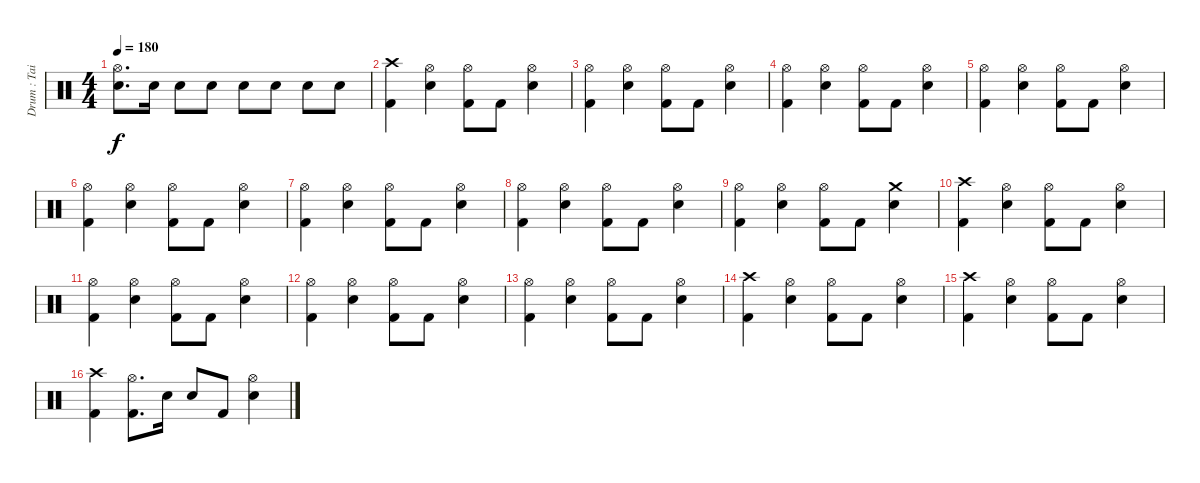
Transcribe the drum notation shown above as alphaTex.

\track ("Drum : Tainaka Ritsu" "Drum : Tai") {instrument percussion}
\staff {score}
\articulation defaults
\ts (4 4)
\tempo 180
\clef neutral
\ks c
("Hi-Hat (open)" "Snare (hit) 2").8{d dy f} "Snare (hit) 2".16 "Snare (hit) 2".8 "Snare (hit) 2".8 "Snare (hit) 2".8 "Snare (hit) 2".8 "Snare (hit) 2".8 "Snare (hit) 2".8 |
("Crash high (hit)" "Kick (hit) 2").4 ("Hi-Hat (open)" "Snare (hit) 2").4 ("Hi-Hat (open)" "Kick (hit) 2").8 "Kick (hit) 2".8 ("Hi-Hat (open)" "Snare (hit) 2").4 |
("Hi-Hat (open)" "Kick (hit) 2").4 ("Hi-Hat (open)" "Snare (hit) 2").4 ("Hi-Hat (open)" "Kick (hit) 2").8 "Kick (hit) 2".8 ("Hi-Hat (open)" "Snare (hit) 2").4 |
("Hi-Hat (open)" "Kick (hit) 2").4 ("Hi-Hat (open)" "Snare (hit) 2").4 ("Hi-Hat (open)" "Kick (hit) 2").8 "Kick (hit) 2".8 ("Hi-Hat (open)" "Snare (hit) 2").4 |
("Hi-Hat (open)" "Kick (hit) 2").4 ("Hi-Hat (open)" "Snare (hit) 2").4 ("Hi-Hat (open)" "Kick (hit) 2").8 "Kick (hit) 2".8 ("Hi-Hat (open)" "Snare (hit) 2").4 |
("Hi-Hat (open)" "Kick (hit) 2").4 ("Hi-Hat (open)" "Snare (hit) 2").4 ("Hi-Hat (open)" "Kick (hit) 2").8 "Kick (hit) 2".8 ("Hi-Hat (open)" "Snare (hit) 2").4 |
("Hi-Hat (open)" "Kick (hit) 2").4 ("Hi-Hat (open)" "Snare (hit) 2").4 ("Hi-Hat (open)" "Kick (hit) 2").8 "Kick (hit) 2".8 ("Hi-Hat (open)" "Snare (hit) 2").4 |
("Hi-Hat (open)" "Kick (hit) 2").4 ("Hi-Hat (open)" "Snare (hit) 2").4 ("Hi-Hat (open)" "Kick (hit) 2").8 "Kick (hit) 2".8 ("Hi-Hat (open)" "Snare (hit) 2").4 |
("Hi-Hat (open)" "Kick (hit) 2").4 ("Hi-Hat (open)" "Snare (hit) 2").4 ("Hi-Hat (open)" "Kick (hit) 2").8 "Kick (hit) 2".8 ("Crash medium (hit)" "Snare (hit) 2").4 |
("Crash high (hit)" "Kick (hit) 2").4 ("Hi-Hat (open)" "Snare (hit) 2").4 ("Hi-Hat (open)" "Kick (hit) 2").8 "Kick (hit) 2".8 ("Hi-Hat (open)" "Snare (hit) 2").4 |
("Hi-Hat (open)" "Kick (hit) 2").4 ("Hi-Hat (open)" "Snare (hit) 2").4 ("Hi-Hat (open)" "Kick (hit) 2").8 "Kick (hit) 2".8 ("Hi-Hat (open)" "Snare (hit) 2").4 |
("Hi-Hat (open)" "Kick (hit) 2").4 ("Hi-Hat (open)" "Snare (hit) 2").4 ("Hi-Hat (open)" "Kick (hit) 2").8 "Kick (hit) 2".8 ("Hi-Hat (open)" "Snare (hit) 2").4 |
("Hi-Hat (open)" "Kick (hit) 2").4 ("Hi-Hat (open)" "Snare (hit) 2").4 ("Hi-Hat (open)" "Kick (hit) 2").8 "Kick (hit) 2".8 ("Hi-Hat (open)" "Snare (hit) 2").4 |
("Crash high (hit)" "Kick (hit) 2").4 ("Hi-Hat (open)" "Snare (hit) 2").4 ("Hi-Hat (open)" "Kick (hit) 2").8 "Kick (hit) 2".8 ("Hi-Hat (open)" "Snare (hit) 2").4 |
("Crash high (hit)" "Kick (hit) 2").4 ("Hi-Hat (open)" "Snare (hit) 2").4 ("Hi-Hat (open)" "Kick (hit) 2").8 "Kick (hit) 2".8 ("Hi-Hat (open)" "Snare (hit) 2").4 |
("Crash high (hit)" "Kick (hit) 2").4 ("Hi-Hat (open)" "Kick (hit) 2").8{d} "Snare (hit) 2".16 "Snare (hit) 2".8 "Kick (hit) 2".8 ("Hi-Hat (open)" "Snare (hit) 2").4
